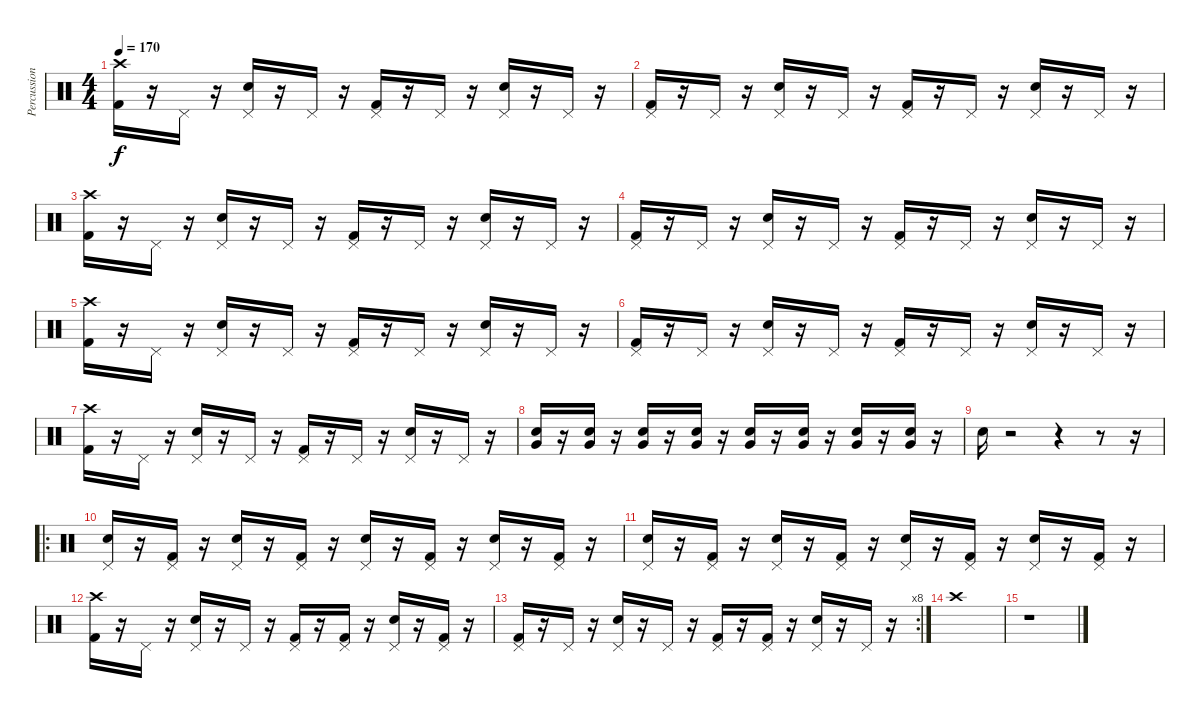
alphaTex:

\track ("Percussion" "Percussion") {instrument percussion}
\staff {score}
\articulation defaults
\ts (4 4)
\tempo 170
\clef neutral
\ks c
("Crash high (hit)" "Kick (hit) 2").16{dy f} r.16 "Pedal Hi-Hat (hit)".16 r.16 ("Pedal Hi-Hat (hit)" "Snare (hit) 2").16 r.16 "Pedal Hi-Hat (hit)".16 r.16 ("Pedal Hi-Hat (hit)" "Kick (hit) 2").16 r.16 "Pedal Hi-Hat (hit)".16 r.16 ("Pedal Hi-Hat (hit)" "Snare (hit) 2").16 r.16 "Pedal Hi-Hat (hit)".16 r.16 |
("Pedal Hi-Hat (hit)" "Kick (hit) 2").16 r.16 "Pedal Hi-Hat (hit)".16 r.16 ("Pedal Hi-Hat (hit)" "Snare (hit) 2").16 r.16 "Pedal Hi-Hat (hit)".16 r.16 ("Pedal Hi-Hat (hit)" "Kick (hit) 2").16 r.16 "Pedal Hi-Hat (hit)".16 r.16 ("Pedal Hi-Hat (hit)" "Snare (hit) 2").16 r.16 "Pedal Hi-Hat (hit)".16 r.16 |
("Crash high (hit)" "Kick (hit) 2").16 r.16 "Pedal Hi-Hat (hit)".16 r.16 ("Pedal Hi-Hat (hit)" "Snare (hit) 2").16 r.16 "Pedal Hi-Hat (hit)".16 r.16 ("Pedal Hi-Hat (hit)" "Kick (hit) 2").16 r.16 "Pedal Hi-Hat (hit)".16 r.16 ("Pedal Hi-Hat (hit)" "Snare (hit) 2").16 r.16 "Pedal Hi-Hat (hit)".16 r.16 |
("Pedal Hi-Hat (hit)" "Kick (hit) 2").16 r.16 "Pedal Hi-Hat (hit)".16 r.16 ("Pedal Hi-Hat (hit)" "Snare (hit) 2").16 r.16 "Pedal Hi-Hat (hit)".16 r.16 ("Pedal Hi-Hat (hit)" "Kick (hit) 2").16 r.16 "Pedal Hi-Hat (hit)".16 r.16 ("Pedal Hi-Hat (hit)" "Snare (hit) 2").16 r.16 "Pedal Hi-Hat (hit)".16 r.16 |
("Crash high (hit)" "Kick (hit) 2").16 r.16 "Pedal Hi-Hat (hit)".16 r.16 ("Pedal Hi-Hat (hit)" "Snare (hit) 2").16 r.16 "Pedal Hi-Hat (hit)".16 r.16 ("Pedal Hi-Hat (hit)" "Kick (hit) 2").16 r.16 "Pedal Hi-Hat (hit)".16 r.16 ("Pedal Hi-Hat (hit)" "Snare (hit) 2").16 r.16 "Pedal Hi-Hat (hit)".16 r.16 |
("Pedal Hi-Hat (hit)" "Kick (hit) 2").16 r.16 "Pedal Hi-Hat (hit)".16 r.16 ("Pedal Hi-Hat (hit)" "Snare (hit) 2").16 r.16 "Pedal Hi-Hat (hit)".16 r.16 ("Pedal Hi-Hat (hit)" "Kick (hit) 2").16 r.16 "Pedal Hi-Hat (hit)".16 r.16 ("Pedal Hi-Hat (hit)" "Snare (hit) 2").16 r.16 "Pedal Hi-Hat (hit)".16 r.16 |
("Crash high (hit)" "Kick (hit) 2").16 r.16 "Pedal Hi-Hat (hit)".16 r.16 ("Pedal Hi-Hat (hit)" "Snare (hit) 2").16 r.16 "Pedal Hi-Hat (hit)".16 r.16 ("Pedal Hi-Hat (hit)" "Kick (hit) 2").16 r.16 "Pedal Hi-Hat (hit)".16 r.16 ("Pedal Hi-Hat (hit)" "Snare (hit) 2").16 r.16 "Pedal Hi-Hat (hit)".16 r.16 |
("Very Low Tom (hit)" "Snare (hit) 2").16 r.16 ("Very Low Tom (hit)" "Snare (hit) 2").16 r.16 ("Very Low Tom (hit)" "Snare (hit) 2").16 r.16 ("Very Low Tom (hit)" "Snare (hit) 2").16 r.16 ("Very Low Tom (hit)" "Snare (hit) 2").16 r.16 ("Very Low Tom (hit)" "Snare (hit) 2").16 r.16 ("Very Low Tom (hit)" "Snare (hit) 2").16 r.16 ("Very Low Tom (hit)" "Snare (hit) 2").16 r.16 |
"Snare (hit) 2".16 r.2 r.4 r.8 r.16 |
\ro
("Pedal Hi-Hat (hit)" "Snare (hit) 2").16 r.16 ("Pedal Hi-Hat (hit)" "Kick (hit) 2").16 r.16 ("Pedal Hi-Hat (hit)" "Snare (hit) 2").16 r.16 ("Pedal Hi-Hat (hit)" "Kick (hit) 2").16 r.16 ("Pedal Hi-Hat (hit)" "Snare (hit) 2").16 r.16 ("Pedal Hi-Hat (hit)" "Kick (hit) 2").16 r.16 ("Pedal Hi-Hat (hit)" "Snare (hit) 2").16 r.16 ("Pedal Hi-Hat (hit)" "Kick (hit) 2").16 r.16 |
("Pedal Hi-Hat (hit)" "Snare (hit) 2").16 r.16 ("Pedal Hi-Hat (hit)" "Kick (hit) 2").16 r.16 ("Pedal Hi-Hat (hit)" "Snare (hit) 2").16 r.16 ("Pedal Hi-Hat (hit)" "Kick (hit) 2").16 r.16 ("Pedal Hi-Hat (hit)" "Snare (hit) 2").16 r.16 ("Pedal Hi-Hat (hit)" "Kick (hit) 2").16 r.16 ("Pedal Hi-Hat (hit)" "Snare (hit) 2").16 r.16 ("Pedal Hi-Hat (hit)" "Kick (hit) 2").16 r.16 |
("Crash high (hit)" "Kick (hit) 2").16 r.16 "Pedal Hi-Hat (hit)".16 r.16 ("Pedal Hi-Hat (hit)" "Snare (hit) 2").16 r.16 "Pedal Hi-Hat (hit)".16 r.16 ("Pedal Hi-Hat (hit)" "Kick (hit) 2").16 r.16 ("Pedal Hi-Hat (hit)" "Kick (hit) 2").16 r.16 ("Pedal Hi-Hat (hit)" "Snare (hit) 2").16 r.16 ("Pedal Hi-Hat (hit)" "Kick (hit) 2").16 r.16 |
\rc 8
("Pedal Hi-Hat (hit)" "Kick (hit) 2").16 r.16 "Pedal Hi-Hat (hit)".16 r.16 ("Pedal Hi-Hat (hit)" "Snare (hit) 2").16 r.16 "Pedal Hi-Hat (hit)".16 r.16 ("Pedal Hi-Hat (hit)" "Kick (hit) 2").16 r.16 ("Pedal Hi-Hat (hit)" "Kick (hit) 2").16 r.16 ("Pedal Hi-Hat (hit)" "Snare (hit) 2").16 r.16 "Pedal Hi-Hat (hit)".16 r.16 |
"Crash high (hit)".1 |
r.1
